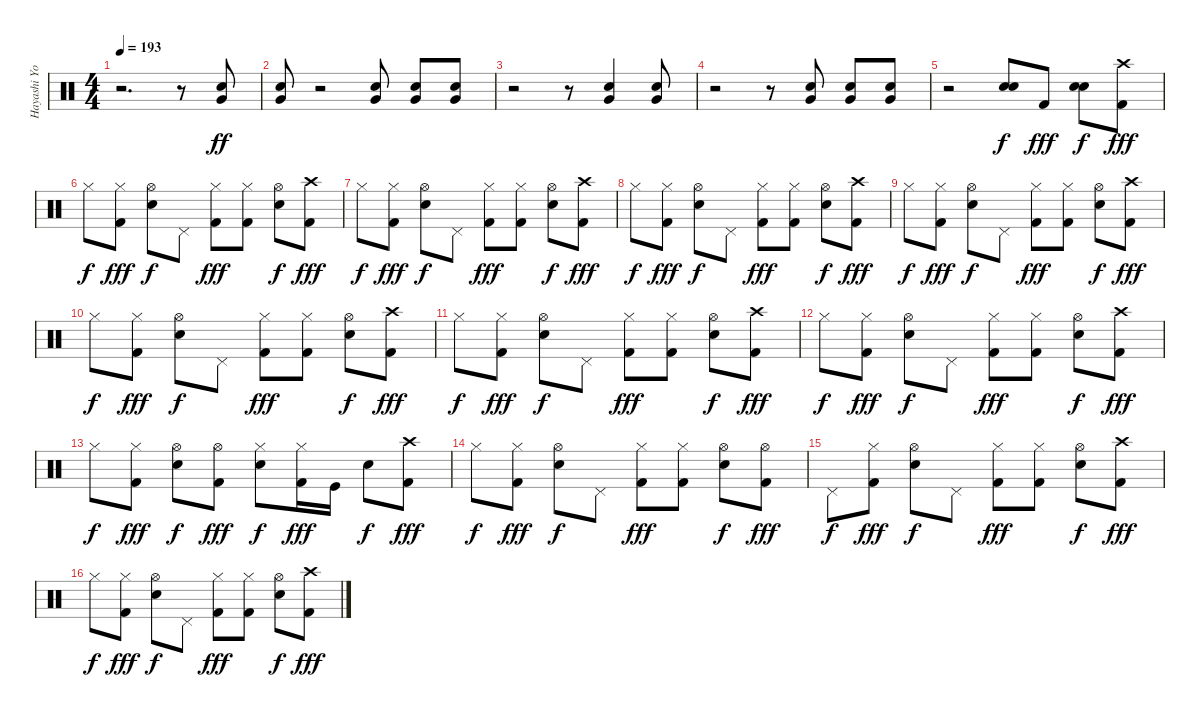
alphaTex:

\track ("Hayashi Yoshiki(Yoshiki)" "Hayashi Yo") {instrument percussion}
\staff {score}
\articulation defaults
\ts (4 4)
\tempo 193
\clef neutral
\ks c
r.2{d dy ff} r.8 ("Very Low Tom (hit)" "Electric Snare (hit)").8 |
("Very Low Tom (hit)" "Electric Snare (hit)").8 r.2 ("Very Low Tom (hit)" "Electric Snare (hit)").8 ("Very Low Tom (hit)" "Electric Snare (hit)").8 ("Very Low Tom (hit)" "Electric Snare (hit)").8 |
r.2 r.8 ("Very Low Tom (hit)" "Electric Snare (hit)").4 ("Very Low Tom (hit)" "Electric Snare (hit)").8 |
r.2 r.8 ("Very Low Tom (hit)" "Electric Snare (hit)").8 ("Very Low Tom (hit)" "Electric Snare (hit)").8 ("Very Low Tom (hit)" "Electric Snare (hit)").8 |
r.2 ("Electric Snare (hit)" "Electric Snare (hit)").8{dy f} "Kick (hit) 2".8{dy fff} ("Electric Snare (hit)" "Electric Snare (hit)").8{dy f} ("Crash high (hit)" "Kick (hit) 2").8{dy fff} |
"Hi-Hat (closed)".8{dy f} ("Hi-Hat (closed)" "Kick (hit) 2").8{dy fff} ("Hi-Hat (open)" "Electric Snare (hit)").8{dy f} "Pedal Hi-Hat (hit)".8 ("Hi-Hat (closed)" "Kick (hit) 2").8{dy fff} ("Hi-Hat (closed)" "Kick (hit) 2").8 ("Hi-Hat (open)" "Electric Snare (hit)").8{dy f} ("Crash high (hit)" "Kick (hit) 2").8{dy fff} |
"Hi-Hat (closed)".8{dy f} ("Hi-Hat (closed)" "Kick (hit) 2").8{dy fff} ("Hi-Hat (open)" "Electric Snare (hit)").8{dy f} "Pedal Hi-Hat (hit)".8 ("Hi-Hat (closed)" "Kick (hit) 2").8{dy fff} ("Hi-Hat (closed)" "Kick (hit) 2").8 ("Hi-Hat (open)" "Electric Snare (hit)").8{dy f} ("Crash high (hit)" "Kick (hit) 2").8{dy fff} |
"Hi-Hat (closed)".8{dy f} ("Hi-Hat (closed)" "Kick (hit) 2").8{dy fff} ("Hi-Hat (open)" "Electric Snare (hit)").8{dy f} "Pedal Hi-Hat (hit)".8 ("Hi-Hat (closed)" "Kick (hit) 2").8{dy fff} ("Hi-Hat (closed)" "Kick (hit) 2").8 ("Hi-Hat (open)" "Electric Snare (hit)").8{dy f} ("Crash high (hit)" "Kick (hit) 2").8{dy fff} |
"Hi-Hat (closed)".8{dy f} ("Hi-Hat (closed)" "Kick (hit) 2").8{dy fff} ("Hi-Hat (open)" "Electric Snare (hit)").8{dy f} "Pedal Hi-Hat (hit)".8 ("Hi-Hat (closed)" "Kick (hit) 2").8{dy fff} ("Hi-Hat (closed)" "Kick (hit) 2").8 ("Hi-Hat (open)" "Electric Snare (hit)").8{dy f} ("Crash high (hit)" "Kick (hit) 2").8{dy fff} |
"Hi-Hat (closed)".8{dy f} ("Hi-Hat (closed)" "Kick (hit) 2").8{dy fff} ("Hi-Hat (open)" "Electric Snare (hit)").8{dy f} "Pedal Hi-Hat (hit)".8 ("Hi-Hat (closed)" "Kick (hit) 2").8{dy fff} ("Hi-Hat (closed)" "Kick (hit) 2").8 ("Hi-Hat (open)" "Electric Snare (hit)").8{dy f} ("Crash high (hit)" "Kick (hit) 2").8{dy fff} |
"Hi-Hat (closed)".8{dy f} ("Hi-Hat (closed)" "Kick (hit) 2").8{dy fff} ("Hi-Hat (open)" "Electric Snare (hit)").8{dy f} "Pedal Hi-Hat (hit)".8 ("Hi-Hat (closed)" "Kick (hit) 2").8{dy fff} ("Hi-Hat (closed)" "Kick (hit) 2").8 ("Hi-Hat (open)" "Electric Snare (hit)").8{dy f} ("Crash high (hit)" "Kick (hit) 2").8{dy fff} |
"Hi-Hat (closed)".8{dy f} ("Hi-Hat (closed)" "Kick (hit) 2").8{dy fff} ("Hi-Hat (open)" "Electric Snare (hit)").8{dy f} "Pedal Hi-Hat (hit)".8 ("Hi-Hat (closed)" "Kick (hit) 2").8{dy fff} ("Hi-Hat (closed)" "Kick (hit) 2").8 ("Hi-Hat (open)" "Electric Snare (hit)").8{dy f} ("Crash high (hit)" "Kick (hit) 2").8{dy fff} |
"Hi-Hat (closed)".8{dy f} ("Hi-Hat (closed)" "Kick (hit) 2").8{dy fff} ("Hi-Hat (open)" "Electric Snare (hit)").8{dy f} ("Hi-Hat (open)" "Kick (hit) 2").8{dy fff} ("Hi-Hat (closed)" "Electric Snare (hit)").8{dy f} ("Hi-Hat (closed)" "Kick (hit) 2").16{dy fff} "Kick (hit)".16 "Electric Snare (hit)".8{dy f} ("Crash high (hit)" "Kick (hit) 2").8{dy fff} |
"Hi-Hat (closed)".8{dy f} ("Hi-Hat (closed)" "Kick (hit) 2").8{dy fff} ("Hi-Hat (open)" "Electric Snare (hit)").8{dy f} "Pedal Hi-Hat (hit)".8 ("Hi-Hat (closed)" "Kick (hit) 2").8{dy fff} ("Hi-Hat (closed)" "Kick (hit) 2").8 ("Hi-Hat (open)" "Electric Snare (hit)").8{dy f} ("Hi-Hat (open)" "Kick (hit) 2").8{dy fff} |
"Pedal Hi-Hat (hit)".8{dy f} ("Hi-Hat (closed)" "Kick (hit) 2").8{dy fff} ("Hi-Hat (open)" "Electric Snare (hit)").8{dy f} "Pedal Hi-Hat (hit)".8 ("Hi-Hat (closed)" "Kick (hit) 2").8{dy fff} ("Hi-Hat (closed)" "Kick (hit) 2").8 ("Hi-Hat (open)" "Electric Snare (hit)").8{dy f} ("Crash high (hit)" "Kick (hit) 2").8{dy fff} |
"Hi-Hat (closed)".8{dy f} ("Hi-Hat (closed)" "Kick (hit) 2").8{dy fff} ("Hi-Hat (open)" "Electric Snare (hit)").8{dy f} "Pedal Hi-Hat (hit)".8 ("Hi-Hat (closed)" "Kick (hit) 2").8{dy fff} ("Hi-Hat (closed)" "Kick (hit) 2").8 ("Hi-Hat (open)" "Electric Snare (hit)").8{dy f} ("Crash high (hit)" "Kick (hit) 2").8{dy fff}
